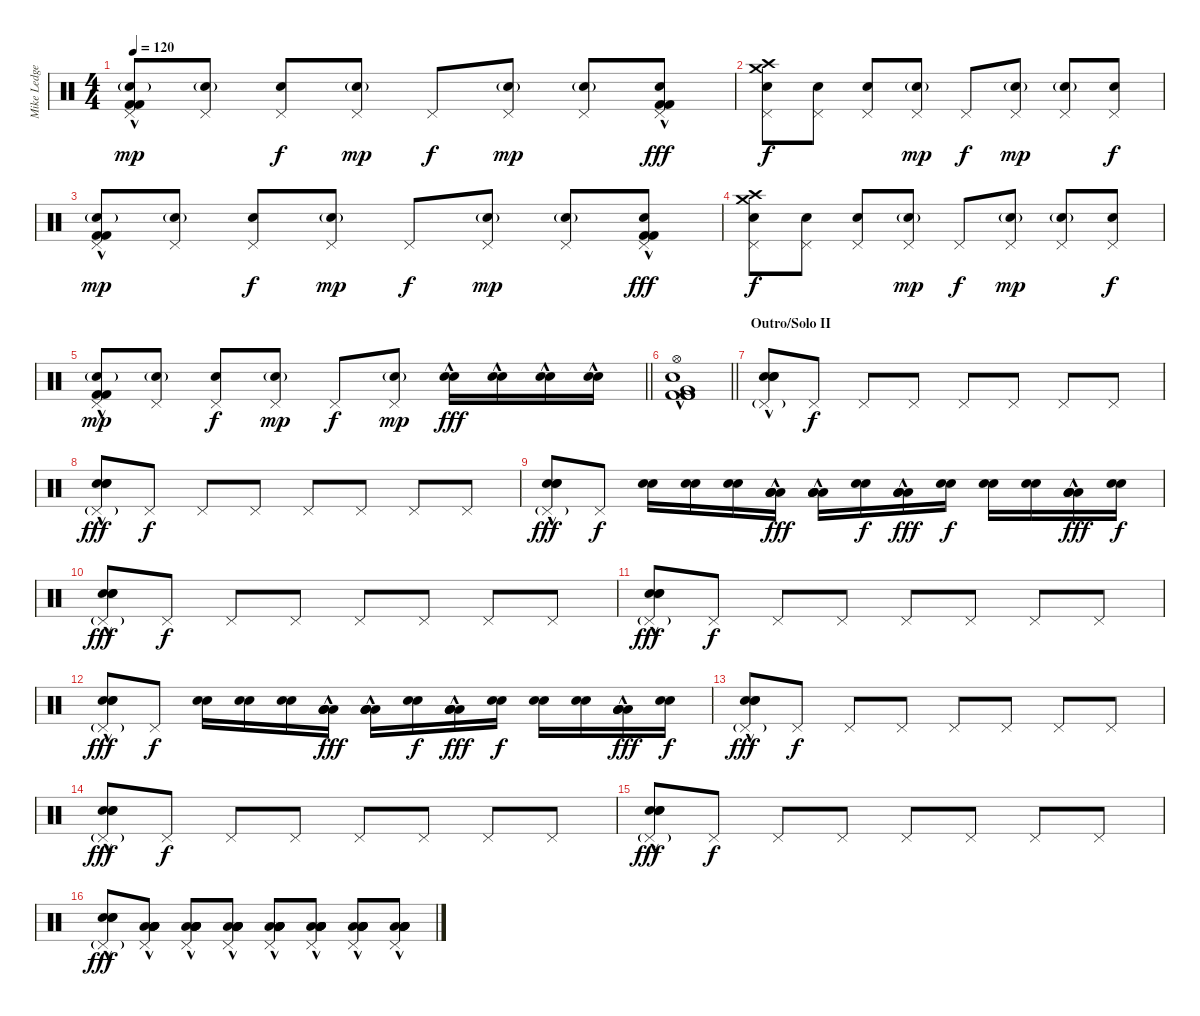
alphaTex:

\track ("Mike Ledger - Drums" "Mike Ledge") {instrument percussion}
\staff {score}
\articulation defaults
\ts (4 4)
\tempo 120
\clef neutral
\ks c
("Pedal Hi-Hat (hit)" "Kick (hit) 2"{hac} "Kick (hit) 2"{hac} "Snare (hit) 2"{g}).8{dy mp} ("Pedal Hi-Hat (hit)" "Snare (hit) 2"{g}).8 ("Pedal Hi-Hat (hit)" "Electric Snare (hit)").8{dy f} ("Pedal Hi-Hat (hit)" "Snare (hit) 2"{g}).8{dy mp} "Pedal Hi-Hat (hit)".8{dy f} ("Pedal Hi-Hat (hit)" "Snare (hit) 2"{g}).8{dy mp} ("Pedal Hi-Hat (hit)" "Snare (hit) 2"{g}).8 ("Pedal Hi-Hat (hit)" "Kick (hit) 2"{hac} "Kick (hit) 2"{hac} "Electric Snare (hit)").8{dy fff} |
("Pedal Hi-Hat (hit)" "Crash medium (hit)" "Crash high (hit)" "Snare (hit) 2").8{dy f} ("Pedal Hi-Hat (hit)" "Snare (hit) 2").8 ("Pedal Hi-Hat (hit)" "Electric Snare (hit)").8 ("Pedal Hi-Hat (hit)" "Snare (hit) 2"{g}).8{dy mp} "Pedal Hi-Hat (hit)".8{dy f} ("Pedal Hi-Hat (hit)" "Snare (hit) 2"{g}).8{dy mp} ("Pedal Hi-Hat (hit)" "Snare (hit) 2"{g}).8 ("Pedal Hi-Hat (hit)" "Electric Snare (hit)").8{dy f} |
("Pedal Hi-Hat (hit)" "Kick (hit) 2"{hac} "Kick (hit) 2"{hac} "Snare (hit) 2"{g}).8{dy mp} ("Pedal Hi-Hat (hit)" "Snare (hit) 2"{g}).8 ("Pedal Hi-Hat (hit)" "Electric Snare (hit)").8{dy f} ("Pedal Hi-Hat (hit)" "Snare (hit) 2"{g}).8{dy mp} "Pedal Hi-Hat (hit)".8{dy f} ("Pedal Hi-Hat (hit)" "Snare (hit) 2"{g}).8{dy mp} ("Pedal Hi-Hat (hit)" "Snare (hit) 2"{g}).8 ("Pedal Hi-Hat (hit)" "Kick (hit) 2"{hac} "Kick (hit) 2"{hac} "Electric Snare (hit)").8{dy fff} |
("Pedal Hi-Hat (hit)" "Crash medium (hit)" "Crash high (hit)" "Snare (hit) 2").8{dy f} ("Pedal Hi-Hat (hit)" "Snare (hit) 2").8 ("Pedal Hi-Hat (hit)" "Electric Snare (hit)").8 ("Pedal Hi-Hat (hit)" "Snare (hit) 2"{g}).8{dy mp} "Pedal Hi-Hat (hit)".8{dy f} ("Pedal Hi-Hat (hit)" "Snare (hit) 2"{g}).8{dy mp} ("Pedal Hi-Hat (hit)" "Snare (hit) 2"{g}).8 ("Pedal Hi-Hat (hit)" "Electric Snare (hit)").8{dy f} |
\barLineRight lightlight
("Pedal Hi-Hat (hit)" "Kick (hit) 2"{hac} "Kick (hit) 2"{hac} "Snare (hit) 2"{g}).8{dy mp} ("Pedal Hi-Hat (hit)" "Snare (hit) 2"{g}).8 ("Pedal Hi-Hat (hit)" "Electric Snare (hit)").8{dy f} ("Pedal Hi-Hat (hit)" "Snare (hit) 2"{g}).8{dy mp} "Pedal Hi-Hat (hit)".8{dy f} ("Pedal Hi-Hat (hit)" "Snare (hit) 2"{g}).8{dy mp} ("Electric Snare (hit)"{hac} "Electric Snare (hit)"{hac}).16{dy fff} ("Electric Snare (hit)"{hac} "Electric Snare (hit)"{hac}).16 ("Electric Snare (hit)"{hac} "Electric Snare (hit)"{hac}).16 ("Electric Snare (hit)"{hac} "Electric Snare (hit)"{hac}).16 |
\barLineRight lightlight
("Snare (hit) 2"{hac} "Hi-Hat (open)"{hac} "Kick (hit) 2"{hac} "Kick (hit) 2"{hac} "Kick (hit) 2"{hac} "Very Low Tom (hit)"{hac}).1 |
\section ("" "Outro/Solo II")
("Pedal Hi-Hat (hit)"{g} "Snare (hit) 2"{hac} "Snare (hit) 2"{hac} "Snare (hit) 2"{hac}).8 "Pedal Hi-Hat (hit)".8{dy f} "Pedal Hi-Hat (hit)".8 "Pedal Hi-Hat (hit)".8 "Pedal Hi-Hat (hit)".8 "Pedal Hi-Hat (hit)".8 "Pedal Hi-Hat (hit)".8 "Pedal Hi-Hat (hit)".8 |
("Pedal Hi-Hat (hit)"{g} "Snare (hit) 2"{hac} "Snare (hit) 2"{hac} "Snare (hit) 2"{hac}).8{dy fff} "Pedal Hi-Hat (hit)".8{dy f} "Pedal Hi-Hat (hit)".8 "Pedal Hi-Hat (hit)".8 "Pedal Hi-Hat (hit)".8 "Pedal Hi-Hat (hit)".8 "Pedal Hi-Hat (hit)".8 "Pedal Hi-Hat (hit)".8 |
("Pedal Hi-Hat (hit)"{g} "Snare (hit) 2"{hac} "Snare (hit) 2"{hac} "Snare (hit) 2"{hac}).8{dy fff} "Pedal Hi-Hat (hit)".8{dy f} ("Snare (hit) 2" "Snare (hit) 2").16 ("Snare (hit) 2" "Snare (hit) 2").16 ("Snare (hit) 2" "Snare (hit) 2").16 ("Low Floor Tom (hit)"{hac} "Low Floor Tom (hit)"{hac} "Low Floor Tom (hit)"{hac} "Low Floor Tom (hit)"{hac}).16{dy fff} ("Low Floor Tom (hit)"{hac} "Low Floor Tom (hit)"{hac} "Low Floor Tom (hit)"{hac} "Low Floor Tom (hit)"{hac}).16 ("Snare (hit) 2" "Snare (hit) 2").16{dy f} ("Low Floor Tom (hit)"{hac} "Low Floor Tom (hit)"{hac} "Low Floor Tom (hit)"{hac} "Low Floor Tom (hit)"{hac}).16{dy fff} ("Snare (hit) 2" "Snare (hit) 2").16{dy f} ("Snare (hit) 2" "Snare (hit) 2").16 ("Snare (hit) 2" "Snare (hit) 2").16 ("Low Floor Tom (hit)"{hac} "Low Floor Tom (hit)"{hac} "Low Floor Tom (hit)"{hac} "Low Floor Tom (hit)"{hac}).16{dy fff} ("Snare (hit) 2" "Snare (hit) 2").16{dy f} |
("Pedal Hi-Hat (hit)"{g} "Snare (hit) 2"{hac} "Snare (hit) 2"{hac} "Snare (hit) 2"{hac}).8{dy fff} "Pedal Hi-Hat (hit)".8{dy f} "Pedal Hi-Hat (hit)".8 "Pedal Hi-Hat (hit)".8 "Pedal Hi-Hat (hit)".8 "Pedal Hi-Hat (hit)".8 "Pedal Hi-Hat (hit)".8 "Pedal Hi-Hat (hit)".8 |
("Pedal Hi-Hat (hit)"{g} "Snare (hit) 2"{hac} "Snare (hit) 2"{hac} "Snare (hit) 2"{hac}).8{dy fff} "Pedal Hi-Hat (hit)".8{dy f} "Pedal Hi-Hat (hit)".8 "Pedal Hi-Hat (hit)".8 "Pedal Hi-Hat (hit)".8 "Pedal Hi-Hat (hit)".8 "Pedal Hi-Hat (hit)".8 "Pedal Hi-Hat (hit)".8 |
("Pedal Hi-Hat (hit)"{g} "Snare (hit) 2"{hac} "Snare (hit) 2"{hac} "Snare (hit) 2"{hac}).8{dy fff} "Pedal Hi-Hat (hit)".8{dy f} ("Snare (hit) 2" "Snare (hit) 2").16 ("Snare (hit) 2" "Snare (hit) 2").16 ("Snare (hit) 2" "Snare (hit) 2").16 ("Low Floor Tom (hit)"{hac} "Low Floor Tom (hit)"{hac} "Low Floor Tom (hit)"{hac} "Low Floor Tom (hit)"{hac}).16{dy fff} ("Low Floor Tom (hit)"{hac} "Low Floor Tom (hit)"{hac} "Low Floor Tom (hit)"{hac} "Low Floor Tom (hit)"{hac}).16 ("Snare (hit) 2" "Snare (hit) 2").16{dy f} ("Low Floor Tom (hit)"{hac} "Low Floor Tom (hit)"{hac} "Low Floor Tom (hit)"{hac} "Low Floor Tom (hit)"{hac}).16{dy fff} ("Snare (hit) 2" "Snare (hit) 2").16{dy f} ("Snare (hit) 2" "Snare (hit) 2").16 ("Snare (hit) 2" "Snare (hit) 2").16 ("Low Floor Tom (hit)"{hac} "Low Floor Tom (hit)"{hac} "Low Floor Tom (hit)"{hac} "Low Floor Tom (hit)"{hac}).16{dy fff} ("Snare (hit) 2" "Snare (hit) 2").16{dy f} |
("Pedal Hi-Hat (hit)"{g} "Snare (hit) 2"{hac} "Snare (hit) 2"{hac} "Snare (hit) 2"{hac}).8{dy fff} "Pedal Hi-Hat (hit)".8{dy f} "Pedal Hi-Hat (hit)".8 "Pedal Hi-Hat (hit)".8 "Pedal Hi-Hat (hit)".8 "Pedal Hi-Hat (hit)".8 "Pedal Hi-Hat (hit)".8 "Pedal Hi-Hat (hit)".8 |
("Pedal Hi-Hat (hit)"{g} "Snare (hit) 2"{hac} "Snare (hit) 2"{hac} "Snare (hit) 2"{hac}).8{dy fff} "Pedal Hi-Hat (hit)".8{dy f} "Pedal Hi-Hat (hit)".8 "Pedal Hi-Hat (hit)".8 "Pedal Hi-Hat (hit)".8 "Pedal Hi-Hat (hit)".8 "Pedal Hi-Hat (hit)".8 "Pedal Hi-Hat (hit)".8 |
("Pedal Hi-Hat (hit)"{g} "Snare (hit) 2"{hac} "Snare (hit) 2"{hac} "Snare (hit) 2"{hac}).8{dy fff} "Pedal Hi-Hat (hit)".8{dy f} "Pedal Hi-Hat (hit)".8 "Pedal Hi-Hat (hit)".8 "Pedal Hi-Hat (hit)".8 "Pedal Hi-Hat (hit)".8 "Pedal Hi-Hat (hit)".8 "Pedal Hi-Hat (hit)".8 |
("Pedal Hi-Hat (hit)"{g} "Snare (hit) 2"{hac} "Snare (hit) 2"{hac} "Snare (hit) 2"{hac}).8{dy fff} ("Pedal Hi-Hat (hit)" "Low Floor Tom (hit)"{hac} "Low Floor Tom (hit)"{hac} "Low Floor Tom (hit)"{hac} "Low Floor Tom (hit)"{hac} "Low Floor Tom (hit)"{hac}).8 ("Pedal Hi-Hat (hit)" "Low Floor Tom (hit)"{hac} "Low Floor Tom (hit)"{hac} "Low Floor Tom (hit)"{hac} "Low Floor Tom (hit)"{hac} "Low Floor Tom (hit)"{hac}).8 ("Pedal Hi-Hat (hit)" "Low Floor Tom (hit)"{hac} "Low Floor Tom (hit)"{hac} "Low Floor Tom (hit)"{hac} "Low Floor Tom (hit)"{hac} "Low Floor Tom (hit)"{hac}).8 ("Pedal Hi-Hat (hit)" "Low Floor Tom (hit)"{hac} "Low Floor Tom (hit)"{hac} "Low Floor Tom (hit)"{hac} "Low Floor Tom (hit)"{hac} "Low Floor Tom (hit)"{hac}).8 ("Pedal Hi-Hat (hit)" "Low Floor Tom (hit)"{hac} "Low Floor Tom (hit)"{hac} "Low Floor Tom (hit)"{hac} "Low Floor Tom (hit)"{hac} "Low Floor Tom (hit)"{hac}).8 ("Pedal Hi-Hat (hit)" "Low Floor Tom (hit)"{hac} "Low Floor Tom (hit)"{hac} "Low Floor Tom (hit)"{hac} "Low Floor Tom (hit)"{hac} "Low Floor Tom (hit)"{hac}).8 ("Pedal Hi-Hat (hit)" "Low Floor Tom (hit)"{hac} "Low Floor Tom (hit)"{hac} "Low Floor Tom (hit)"{hac} "Low Floor Tom (hit)"{hac} "Low Floor Tom (hit)"{hac}).8
